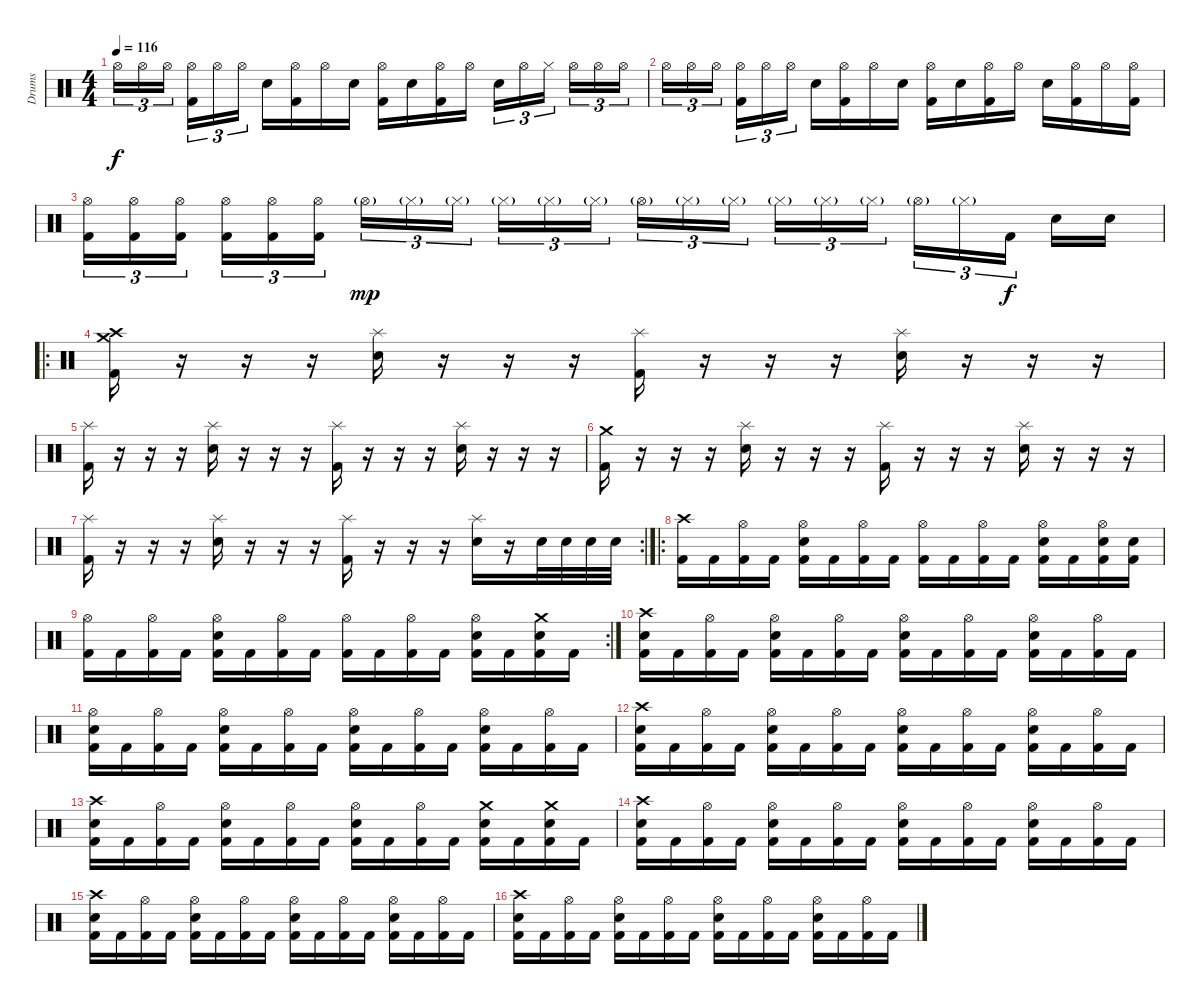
\track ("Drums" "Drums") {instrument percussion}
\staff {score}
\articulation defaults
\ts (4 4)
\tempo 116
\clef neutral
\ks c "Hi-Hat (open)".16{tu (3 2) dy f} "Hi-Hat (open)".16{tu (3 2)} "Hi-Hat (open)".16{tu (3 2)}
("Hi-Hat (open)" "Kick (hit) 2").16{tu (3 2)} "Hi-Hat (open)".16{tu (3 2)} "Hi-Hat (open)".16{tu (3 2)} "Snare (hit) 2".16 ("Hi-Hat (open)" "Kick (hit) 2").16 "Hi-Hat (open)".16 "Snare (hit) 2".16 ("Hi-Hat (open)" "Kick (hit) 2").16 "Snare (hit) 2".16 ("Hi-Hat (open)" "Kick (hit) 2").16 "Hi-Hat (open)".16 "Snare (hit) 2".16{tu (3 2)} "Hi-Hat (open)".16{tu (3 2)} "Hi-Hat (closed)".16{tu (3 2)} "Hi-Hat (open)".16{tu (3 2)} "Hi-Hat (open)".16{tu (3 2)} "Hi-Hat (open)".16{tu (3 2)} |
"Hi-Hat (open)".16{tu (3 2)} "Hi-Hat (open)".16{tu (3 2)} "Hi-Hat (open)".16{tu (3 2)} ("Hi-Hat (open)" "Kick (hit) 2").16{tu (3 2)} "Hi-Hat (open)".16{tu (3 2)} "Hi-Hat (open)".16{tu (3 2)} "Snare (hit) 2".16 ("Hi-Hat (open)" "Kick (hit) 2").16 "Hi-Hat (open)".16 "Snare (hit) 2".16 ("Hi-Hat (open)" "Kick (hit) 2").16 "Snare (hit) 2".16 ("Hi-Hat (open)" "Kick (hit) 2").16 "Hi-Hat (open)".16 "Snare (hit) 2".16 ("Hi-Hat (open)" "Kick (hit) 2").16 "Hi-Hat (open)".16 ("Hi-Hat (open)" "Kick (hit) 2").16 |
("Hi-Hat (open)" "Kick (hit) 2").16{tu (3 2)} ("Hi-Hat (open)" "Kick (hit) 2").16{tu (3 2)} ("Hi-Hat (open)" "Kick (hit) 2").16{tu (3 2)} ("Hi-Hat (open)" "Kick (hit) 2").16{tu (3 2)} ("Hi-Hat (open)" "Kick (hit) 2").16{tu (3 2)} ("Hi-Hat (open)" "Kick (hit) 2").16{tu (3 2)} "Hi-Hat (open)"{g}.16{tu (3 2) dy mp} "Hi-Hat (closed)"{g}.16{tu (3 2)} "Hi-Hat (closed)"{g}.16{tu (3 2)} "Hi-Hat (closed)"{g}.16{tu (3 2)} "Hi-Hat (closed)"{g}.16{tu (3 2)} "Hi-Hat (closed)"{g}.16{tu (3 2)} "Hi-Hat (open)"{g}.16{tu (3 2)} "Hi-Hat (closed)"{g}.16{tu (3 2)} "Hi-Hat (closed)"{g}.16{tu (3 2)} "Hi-Hat (closed)"{g}.16{tu (3 2)} "Hi-Hat (closed)"{g}.16{tu (3 2)} "Hi-Hat (closed)"{g}.16{tu (3 2)} "Hi-Hat (open)"{g}.16{tu (3 2)} "Hi-Hat (closed)"{g}.16{tu (3 2)} "Kick (hit) 2".16{tu (3 2) dy f} "Snare (hit) 2".16 "Snare (hit) 2".16 |
\ro
("Crash high (hit)" "Crash medium (hit)" "Kick (hit) 2").16 r.16 r.16 r.16 ("Splash (hit)" "Snare (hit) 2").16 r.16 r.16 r.16 ("Splash (hit)" "Kick (hit) 2").16 r.16 r.16 r.16 ("Splash (hit)" "Snare (hit) 2").16 r.16 r.16 r.16 |
("Splash (hit)" "Kick (hit) 2").16 r.16 r.16 r.16 ("Splash (hit)" "Snare (hit) 2").16 r.16 r.16 r.16 ("Splash (hit)" "Kick (hit) 2").16 r.16 r.16 r.16 ("Splash (hit)" "Snare (hit) 2").16 r.16 r.16 r.16 |
("Crash medium (hit)" "Kick (hit) 2").16 r.16 r.16 r.16 ("Splash (hit)" "Snare (hit) 2").16 r.16 r.16 r.16 ("Splash (hit)" "Kick (hit) 2").16 r.16 r.16 r.16 ("Splash (hit)" "Snare (hit) 2").16 r.16 r.16 r.16 |
\rc 2
("Splash (hit)" "Kick (hit) 2").16 r.16 r.16 r.16 ("Splash (hit)" "Snare (hit) 2").16 r.16 r.16 r.16 ("Splash (hit)" "Kick (hit) 2").16 r.16 r.16 r.16 ("Splash (hit)" "Snare (hit) 2").16 r.16 "Snare (hit) 2".32 "Snare (hit) 2".32 "Snare (hit) 2".32 "Snare (hit) 2".32 |
\ro
("Crash high (hit)" "Kick (hit) 2").16 "Kick (hit) 2".16 ("Hi-Hat (open)" "Kick (hit) 2").16 "Kick (hit) 2".16 ("Hi-Hat (open)" "Snare (hit) 2" "Kick (hit) 2").16 "Kick (hit) 2".16 ("Hi-Hat (open)" "Kick (hit) 2").16 "Kick (hit) 2".16 ("Hi-Hat (open)" "Kick (hit) 2").16 "Kick (hit) 2".16 ("Hi-Hat (open)" "Kick (hit) 2").16 "Kick (hit) 2".16 ("Hi-Hat (open)" "Snare (hit) 2" "Kick (hit) 2").16 "Kick (hit) 2".16 ("Hi-Hat (open)" "Snare (hit) 2" "Kick (hit) 2").16 ("Snare (hit) 2" "Kick (hit) 2").16 |
\rc 2
("Hi-Hat (open)" "Kick (hit) 2").16 "Kick (hit) 2".16 ("Hi-Hat (open)" "Kick (hit) 2").16 "Kick (hit) 2".16 ("Hi-Hat (open)" "Snare (hit) 2" "Kick (hit) 2").16 "Kick (hit) 2".16 ("Hi-Hat (open)" "Kick (hit) 2").16 "Kick (hit) 2".16 ("Hi-Hat (open)" "Kick (hit) 2").16 "Kick (hit) 2".16 ("Hi-Hat (open)" "Kick (hit) 2").16 "Kick (hit) 2".16 ("Hi-Hat (open)" "Snare (hit) 2" "Kick (hit) 2").16 "Kick (hit) 2".16 ("Crash medium (hit)" "Snare (hit) 2" "Kick (hit) 2").16 "Kick (hit) 2".16 |
("Crash high (hit)" "Snare (hit) 2" "Kick (hit) 2").16 "Kick (hit) 2".16 ("Hi-Hat (open)" "Kick (hit) 2").16 "Kick (hit) 2".16 ("Hi-Hat (open)" "Snare (hit) 2" "Kick (hit) 2").16 "Kick (hit) 2".16 ("Hi-Hat (open)" "Kick (hit) 2").16 "Kick (hit) 2".16 ("Hi-Hat (open)" "Snare (hit) 2" "Kick (hit) 2").16 "Kick (hit) 2".16 ("Hi-Hat (open)" "Kick (hit) 2").16 "Kick (hit) 2".16 ("Hi-Hat (open)" "Snare (hit) 2" "Kick (hit) 2").16 "Kick (hit) 2".16 ("Hi-Hat (open)" "Kick (hit) 2").16 "Kick (hit) 2".16 |
("Hi-Hat (open)" "Snare (hit) 2" "Kick (hit) 2").16 "Kick (hit) 2".16 ("Hi-Hat (open)" "Kick (hit) 2").16 "Kick (hit) 2".16 ("Hi-Hat (open)" "Snare (hit) 2" "Kick (hit) 2").16 "Kick (hit) 2".16 ("Hi-Hat (open)" "Kick (hit) 2").16 "Kick (hit) 2".16 ("Hi-Hat (open)" "Snare (hit) 2" "Kick (hit) 2").16 "Kick (hit) 2".16 ("Hi-Hat (open)" "Kick (hit) 2").16 "Kick (hit) 2".16 ("Hi-Hat (open)" "Snare (hit) 2" "Kick (hit) 2").16 "Kick (hit) 2".16 ("Hi-Hat (open)" "Kick (hit) 2").16 "Kick (hit) 2".16 |
("Crash high (hit)" "Snare (hit) 2" "Kick (hit) 2").16 "Kick (hit) 2".16 ("Hi-Hat (open)" "Kick (hit) 2").16 "Kick (hit) 2".16 ("Hi-Hat (open)" "Snare (hit) 2" "Kick (hit) 2").16 "Kick (hit) 2".16 ("Hi-Hat (open)" "Kick (hit) 2").16 "Kick (hit) 2".16 ("Hi-Hat (open)" "Snare (hit) 2" "Kick (hit) 2").16 "Kick (hit) 2".16 ("Hi-Hat (open)" "Kick (hit) 2").16 "Kick (hit) 2".16 ("Hi-Hat (open)" "Snare (hit) 2" "Kick (hit) 2").16 "Kick (hit) 2".16 ("Hi-Hat (open)" "Kick (hit) 2").16 "Kick (hit) 2".16 |
("Crash high (hit)" "Snare (hit) 2" "Kick (hit) 2").16 "Kick (hit) 2".16 ("Hi-Hat (open)" "Kick (hit) 2").16 "Kick (hit) 2".16 ("Hi-Hat (open)" "Snare (hit) 2" "Kick (hit) 2").16 "Kick (hit) 2".16 ("Hi-Hat (open)" "Kick (hit) 2").16 "Kick (hit) 2".16 ("Hi-Hat (open)" "Snare (hit) 2" "Kick (hit) 2").16 "Kick (hit) 2".16 ("Hi-Hat (open)" "Kick (hit) 2").16 "Kick (hit) 2".16 ("Crash medium (hit)" "Snare (hit) 2" "Kick (hit) 2").16 "Kick (hit) 2".16 ("Crash medium (hit)" "Snare (hit) 2" "Kick (hit) 2").16 "Kick (hit) 2".16 |
("Crash high (hit)" "Snare (hit) 2" "Kick (hit) 2").16 "Kick (hit) 2".16 ("Hi-Hat (open)" "Kick (hit) 2").16 "Kick (hit) 2".16 ("Hi-Hat (open)" "Snare (hit) 2" "Kick (hit) 2").16 "Kick (hit) 2".16 ("Hi-Hat (open)" "Kick (hit) 2").16 "Kick (hit) 2".16 ("Hi-Hat (open)" "Snare (hit) 2" "Kick (hit) 2").16 "Kick (hit) 2".16 ("Hi-Hat (open)" "Kick (hit) 2").16 "Kick (hit) 2".16 ("Hi-Hat (open)" "Snare (hit) 2" "Kick (hit) 2").16 "Kick (hit) 2".16 ("Hi-Hat (open)" "Kick (hit) 2").16 "Kick (hit) 2".16 |
("Crash high (hit)" "Snare (hit) 2" "Kick (hit) 2").16 "Kick (hit) 2".16 ("Hi-Hat (open)" "Kick (hit) 2").16 "Kick (hit) 2".16 ("Hi-Hat (open)" "Snare (hit) 2" "Kick (hit) 2").16 "Kick (hit) 2".16 ("Hi-Hat (open)" "Kick (hit) 2").16 "Kick (hit) 2".16 ("Hi-Hat (open)" "Snare (hit) 2" "Kick (hit) 2").16 "Kick (hit) 2".16 ("Hi-Hat (open)" "Kick (hit) 2").16 "Kick (hit) 2".16 ("Hi-Hat (open)" "Snare (hit) 2" "Kick (hit) 2").16 "Kick (hit) 2".16 ("Hi-Hat (open)" "Kick (hit) 2").16 "Kick (hit) 2".16 |
("Crash high (hit)" "Snare (hit) 2" "Kick (hit) 2").16 "Kick (hit) 2".16 ("Hi-Hat (open)" "Kick (hit) 2").16 "Kick (hit) 2".16 ("Hi-Hat (open)" "Snare (hit) 2" "Kick (hit) 2").16 "Kick (hit) 2".16 ("Hi-Hat (open)" "Kick (hit) 2").16 "Kick (hit) 2".16 ("Hi-Hat (open)" "Snare (hit) 2" "Kick (hit) 2").16 "Kick (hit) 2".16 ("Hi-Hat (open)" "Kick (hit) 2").16 "Kick (hit) 2".16 ("Hi-Hat (open)" "Snare (hit) 2" "Kick (hit) 2").16 "Kick (hit) 2".16 ("Hi-Hat (open)" "Kick (hit) 2").16 "Kick (hit) 2".16
